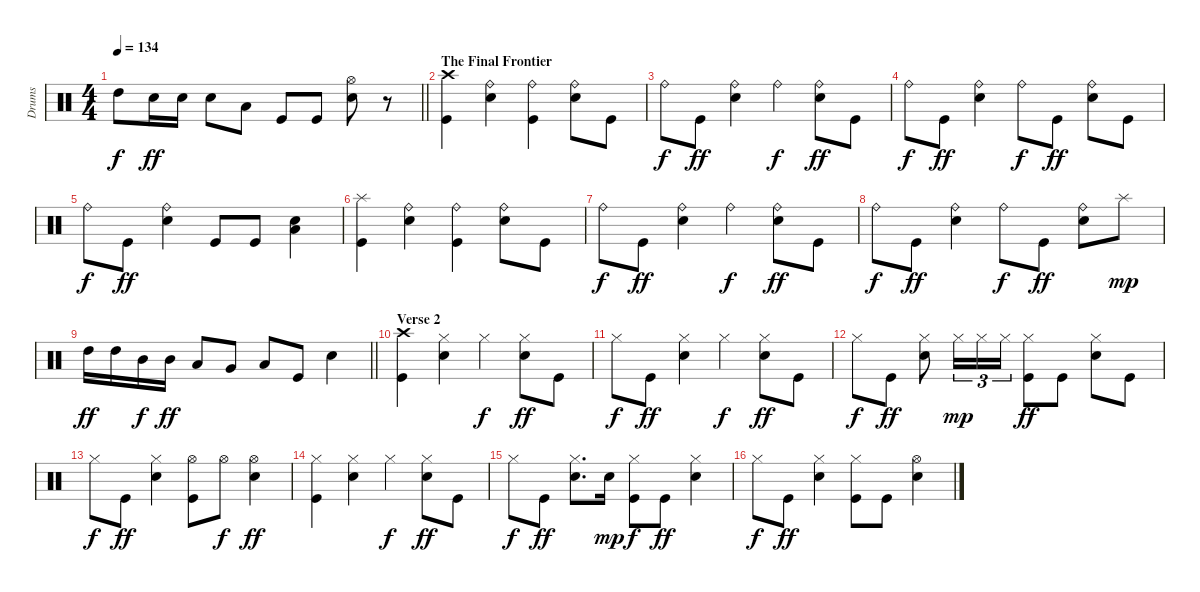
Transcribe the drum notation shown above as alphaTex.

\track ("Drums" "Drums") {instrument percussion}
\staff {score}
\articulation defaults
\ts (4 4)
\tempo 134
\clef neutral
\barLineRight lightlight
\ks c "High Tom (hit)".8{dy f} "Electric Snare (hit)".16{dy ff} "Electric Snare (hit)".16 "Electric Snare (hit)".8 "Low Floor Tom (hit)".8 "Kick (hit)".8 "Kick (hit)".8
("Hi-Hat (open)" "Electric Snare (hit)").8 r.8 |
\section ("" "The Final Frontier")
("Crash high (hit)" "Kick (hit)").4 ("Ride (bell)" "Electric Snare (hit)").4 ("Ride (bell)" "Kick (hit)").4 ("Ride (bell)" "Electric Snare (hit)").8 "Kick (hit)".8 |
"Ride (bell)".8{dy f} "Kick (hit)".8{dy ff} ("Ride (bell)" "Electric Snare (hit)").4 "Ride (bell)".4{dy f} ("Ride (bell)" "Electric Snare (hit)").8{dy ff} "Kick (hit)".8 |
"Ride (bell)".8{dy f} "Kick (hit)".8{dy ff} ("Ride (bell)" "Electric Snare (hit)").4 "Ride (bell)".8{dy f} "Kick (hit)".8{dy ff} ("Ride (bell)" "Electric Snare (hit)").8 "Kick (hit)".8 |
"Ride (bell)".8{dy f} "Kick (hit)".8{dy ff} ("Ride (bell)" "Electric Snare (hit)").4 "Kick (hit)".8 "Kick (hit)".8 ("Low Floor Tom (hit)" "Electric Snare (hit)").4 |
("Splash (hit)" "Kick (hit)").4 ("Ride (bell)" "Electric Snare (hit)").4 ("Ride (bell)" "Kick (hit)").4 ("Ride (bell)" "Electric Snare (hit)").8 "Kick (hit)".8 |
"Ride (bell)".8{dy f} "Kick (hit)".8{dy ff} ("Ride (bell)" "Electric Snare (hit)").4 "Ride (bell)".4{dy f} ("Ride (bell)" "Electric Snare (hit)").8{dy ff} "Kick (hit)".8 |
"Ride (bell)".8{dy f} "Kick (hit)".8{dy ff} ("Ride (bell)" "Electric Snare (hit)").4 "Ride (bell)".8{dy f} "Kick (hit)".8{dy ff} ("Ride (bell)" "Electric Snare (hit)").8 "Splash (hit)".8{dy mp} |
\barLineRight lightlight "High Tom (hit)".16{dy ff} "High Tom (hit)".16 "Mid Tom (hit)".16{dy f} "Mid Tom (hit)".16{dy ff} "Low Tom (hit)".8 "Very Low Tom (hit)".8 "Low Floor Tom (hit)".8 "Kick (hit)".8 "Electric Snare (hit)".4
|
\section ("" "Verse 2")
("Crash high (hit)" "Kick (hit)").4 ("Hi-Hat (closed)" "Electric Snare (hit)").4 "Hi-Hat (closed)".4{dy f} ("Hi-Hat (closed)" "Electric Snare (hit)").8{dy ff} "Kick (hit)".8 |
"Hi-Hat (closed)".8{dy f} "Kick (hit)".8{dy ff} ("Hi-Hat (closed)" "Electric Snare (hit)").4 "Hi-Hat (closed)".4{dy f} ("Hi-Hat (closed)" "Electric Snare (hit)").8{dy ff} "Kick (hit)".8 |
"Hi-Hat (closed)".8{dy f} "Kick (hit)".8{dy ff} ("Hi-Hat (closed)" "Electric Snare (hit)").8 "Hi-Hat (closed)".16{tu (3 2) dy mp} "Hi-Hat (closed)".16{tu (3 2)} "Hi-Hat (closed)".16{tu (3 2)} ("Hi-Hat (closed)" "Kick (hit)").8{dy ff} "Kick (hit)".8 ("Hi-Hat (closed)" "Electric Snare (hit)").8 "Kick (hit)".8 |
"Hi-Hat (closed)".8{dy f} "Kick (hit)".8{dy ff} ("Hi-Hat (closed)" "Electric Snare (hit)").4 ("Hi-Hat (open)" "Kick (hit)").8 "Hi-Hat (open)".8{dy f} ("Hi-Hat (open)" "Electric Snare (hit)").4{dy ff} |
("Hi-Hat (closed)" "Kick (hit)").4 ("Hi-Hat (closed)" "Electric Snare (hit)").4 "Hi-Hat (closed)".4{dy f} ("Hi-Hat (closed)" "Electric Snare (hit)").8{dy ff} "Kick (hit)".8 |
"Hi-Hat (closed)".8{dy f} "Kick (hit)".8{dy ff} ("Hi-Hat (closed)" "Electric Snare (hit)").8{d} "Electric Snare (hit)".16{dy mp} ("Hi-Hat (closed)" "Kick (hit)").8{dy f} "Kick (hit)".8{dy ff} ("Hi-Hat (closed)" "Electric Snare (hit)").4 |
"Hi-Hat (closed)".8{dy f} "Kick (hit)".8{dy ff} ("Hi-Hat (closed)" "Electric Snare (hit)").4 ("Hi-Hat (closed)" "Kick (hit)").8 "Kick (hit)".8 ("Hi-Hat (open)" "Electric Snare (hit)").4
